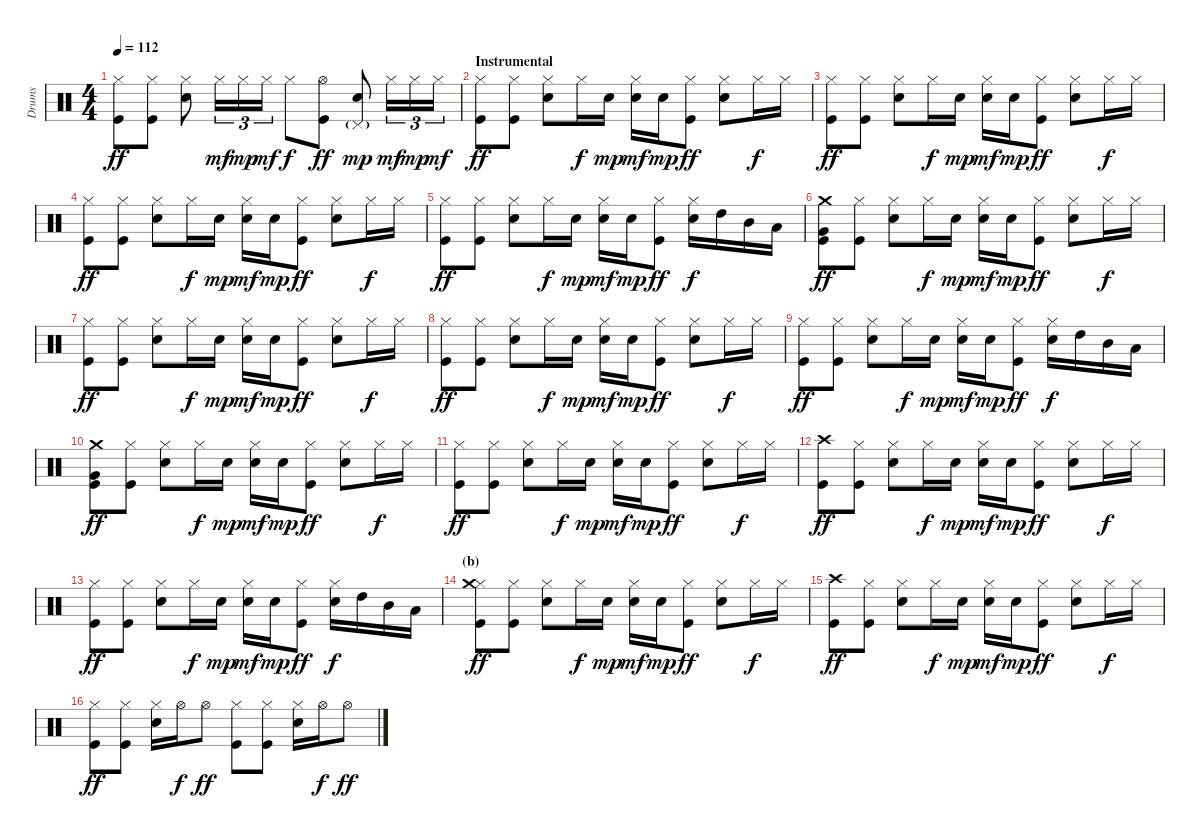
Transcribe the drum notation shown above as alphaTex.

\track ("Drums" "Drums") {instrument percussion}
\staff {score}
\articulation defaults
\ts (4 4)
\tempo 112
\clef neutral
\ks c
("Hi-Hat (closed)" "Kick (hit)").8{dy ff} ("Hi-Hat (closed)" "Kick (hit)").8 ("Hi-Hat (closed)" "Electric Snare (hit)").8 "Hi-Hat (closed)".16{tu (3 2) dy mf} "Hi-Hat (closed)".16{tu (3 2) dy mp} "Hi-Hat (closed)".16{tu (3 2) dy mf} "Hi-Hat (closed)".8{dy f} ("Hi-Hat (open)" "Kick (hit)").8{dy ff} ("Pedal Hi-Hat (hit)"{g} "Electric Snare (hit)").8{dy mp} "Hi-Hat (closed)".16{tu (3 2) dy mf} "Hi-Hat (closed)".16{tu (3 2) dy mp} "Hi-Hat (closed)".16{tu (3 2) dy mf} |
\section ("" "Instrumental")
("Hi-Hat (closed)" "Kick (hit)").8{dy ff} ("Hi-Hat (closed)" "Kick (hit)").8 ("Hi-Hat (closed)" "Electric Snare (hit)").8 "Hi-Hat (closed)".16{dy f} "Electric Snare (hit)".16{dy mp} ("Hi-Hat (closed)" "Electric Snare (hit)").16{dy mf} "Electric Snare (hit)".16{dy mp} ("Hi-Hat (closed)" "Kick (hit)").8{dy ff} ("Hi-Hat (closed)" "Electric Snare (hit)").8 "Hi-Hat (closed)".16{dy f} "Hi-Hat (closed)".16 |
("Hi-Hat (closed)" "Kick (hit)").8{dy ff} ("Hi-Hat (closed)" "Kick (hit)").8 ("Hi-Hat (closed)" "Electric Snare (hit)").8 "Hi-Hat (closed)".16{dy f} "Electric Snare (hit)".16{dy mp} ("Hi-Hat (closed)" "Electric Snare (hit)").16{dy mf} "Electric Snare (hit)".16{dy mp} ("Hi-Hat (closed)" "Kick (hit)").8{dy ff} ("Hi-Hat (closed)" "Electric Snare (hit)").8 "Hi-Hat (closed)".16{dy f} "Hi-Hat (closed)".16 |
("Hi-Hat (closed)" "Kick (hit)").8{dy ff} ("Hi-Hat (closed)" "Kick (hit)").8 ("Hi-Hat (closed)" "Electric Snare (hit)").8 "Hi-Hat (closed)".16{dy f} "Electric Snare (hit)".16{dy mp} ("Hi-Hat (closed)" "Electric Snare (hit)").16{dy mf} "Electric Snare (hit)".16{dy mp} ("Hi-Hat (closed)" "Kick (hit)").8{dy ff} ("Hi-Hat (closed)" "Electric Snare (hit)").8 "Hi-Hat (closed)".16{dy f} "Hi-Hat (closed)".16 |
("Hi-Hat (closed)" "Kick (hit)").8{dy ff} ("Hi-Hat (closed)" "Kick (hit)").8 ("Hi-Hat (closed)" "Electric Snare (hit)").8 "Hi-Hat (closed)".16{dy f} "Electric Snare (hit)".16{dy mp} ("Hi-Hat (closed)" "Electric Snare (hit)").16{dy mf} "Electric Snare (hit)".16{dy mp} ("Hi-Hat (closed)" "Kick (hit)").8{dy ff} ("Hi-Hat (closed)" "Electric Snare (hit)").16{dy f} "High Tom (hit)".16 "Mid Tom (hit)".16 "Low Tom (hit)".16 |
("Crash medium (hit)" "Very Low Tom (hit)" "Kick (hit)").8{dy ff} ("Hi-Hat (closed)" "Kick (hit)").8 ("Hi-Hat (closed)" "Electric Snare (hit)").8 "Hi-Hat (closed)".16{dy f} "Electric Snare (hit)".16{dy mp} ("Hi-Hat (closed)" "Electric Snare (hit)").16{dy mf} "Electric Snare (hit)".16{dy mp} ("Hi-Hat (closed)" "Kick (hit)").8{dy ff} ("Hi-Hat (closed)" "Electric Snare (hit)").8 "Hi-Hat (closed)".16{dy f} "Hi-Hat (closed)".16 |
("Hi-Hat (closed)" "Kick (hit)").8{dy ff} ("Hi-Hat (closed)" "Kick (hit)").8 ("Hi-Hat (closed)" "Electric Snare (hit)").8 "Hi-Hat (closed)".16{dy f} "Electric Snare (hit)".16{dy mp} ("Hi-Hat (closed)" "Electric Snare (hit)").16{dy mf} "Electric Snare (hit)".16{dy mp} ("Hi-Hat (closed)" "Kick (hit)").8{dy ff} ("Hi-Hat (closed)" "Electric Snare (hit)").8 "Hi-Hat (closed)".16{dy f} "Hi-Hat (closed)".16 |
("Hi-Hat (closed)" "Kick (hit)").8{dy ff} ("Hi-Hat (closed)" "Kick (hit)").8 ("Hi-Hat (closed)" "Electric Snare (hit)").8 "Hi-Hat (closed)".16{dy f} "Electric Snare (hit)".16{dy mp} ("Hi-Hat (closed)" "Electric Snare (hit)").16{dy mf} "Electric Snare (hit)".16{dy mp} ("Hi-Hat (closed)" "Kick (hit)").8{dy ff} ("Hi-Hat (closed)" "Electric Snare (hit)").8 "Hi-Hat (closed)".16{dy f} "Hi-Hat (closed)".16 |
("Hi-Hat (closed)" "Kick (hit)").8{dy ff} ("Hi-Hat (closed)" "Kick (hit)").8 ("Hi-Hat (closed)" "Electric Snare (hit)").8 "Hi-Hat (closed)".16{dy f} "Electric Snare (hit)".16{dy mp} ("Hi-Hat (closed)" "Electric Snare (hit)").16{dy mf} "Electric Snare (hit)".16{dy mp} ("Hi-Hat (closed)" "Kick (hit)").8{dy ff} ("Hi-Hat (closed)" "Electric Snare (hit)").16{dy f} "High Tom (hit)".16 "Mid Tom (hit)".16 "Low Tom (hit)".16 |
("Crash medium (hit)" "Very Low Tom (hit)" "Kick (hit)").8{dy ff} ("Hi-Hat (closed)" "Kick (hit)").8 ("Hi-Hat (closed)" "Electric Snare (hit)").8 "Hi-Hat (closed)".16{dy f} "Electric Snare (hit)".16{dy mp} ("Hi-Hat (closed)" "Electric Snare (hit)").16{dy mf} "Electric Snare (hit)".16{dy mp} ("Hi-Hat (closed)" "Kick (hit)").8{dy ff} ("Hi-Hat (closed)" "Electric Snare (hit)").8 "Hi-Hat (closed)".16{dy f} "Hi-Hat (closed)".16 |
("Hi-Hat (closed)" "Kick (hit)").8{dy ff} ("Hi-Hat (closed)" "Kick (hit)").8 ("Hi-Hat (closed)" "Electric Snare (hit)").8 "Hi-Hat (closed)".16{dy f} "Electric Snare (hit)".16{dy mp} ("Hi-Hat (closed)" "Electric Snare (hit)").16{dy mf} "Electric Snare (hit)".16{dy mp} ("Hi-Hat (closed)" "Kick (hit)").8{dy ff} ("Hi-Hat (closed)" "Electric Snare (hit)").8 "Hi-Hat (closed)".16{dy f} "Hi-Hat (closed)".16 |
("Crash high (hit)" "Kick (hit)").8{dy ff} ("Hi-Hat (closed)" "Kick (hit)").8 ("Hi-Hat (closed)" "Electric Snare (hit)").8 "Hi-Hat (closed)".16{dy f} "Electric Snare (hit)".16{dy mp} ("Hi-Hat (closed)" "Electric Snare (hit)").16{dy mf} "Electric Snare (hit)".16{dy mp} ("Hi-Hat (closed)" "Kick (hit)").8{dy ff} ("Hi-Hat (closed)" "Electric Snare (hit)").8 "Hi-Hat (closed)".16{dy f} "Hi-Hat (closed)".16 |
("Hi-Hat (closed)" "Kick (hit)").8{dy ff} ("Hi-Hat (closed)" "Kick (hit)").8 ("Hi-Hat (closed)" "Electric Snare (hit)").8 "Hi-Hat (closed)".16{dy f} "Electric Snare (hit)".16{dy mp} ("Hi-Hat (closed)" "Electric Snare (hit)").16{dy mf} "Electric Snare (hit)".16{dy mp} ("Hi-Hat (closed)" "Kick (hit)").8{dy ff} ("Hi-Hat (closed)" "Electric Snare (hit)").16{dy f} "High Tom (hit)".16 "Mid Tom (hit)".16 "Low Tom (hit)".16 |
\section ("" "(b)")
("Hi-Hat (closed)" "Crash medium (hit)" "Kick (hit)").8{dy ff} ("Hi-Hat (closed)" "Kick (hit)").8 ("Hi-Hat (closed)" "Electric Snare (hit)").8 "Hi-Hat (closed)".16{dy f} "Electric Snare (hit)".16{dy mp} ("Hi-Hat (closed)" "Electric Snare (hit)").16{dy mf} "Electric Snare (hit)".16{dy mp} ("Hi-Hat (closed)" "Kick (hit)").8{dy ff} ("Hi-Hat (closed)" "Electric Snare (hit)").8 "Hi-Hat (closed)".16{dy f} "Hi-Hat (closed)".16 |
("Crash high (hit)" "Kick (hit)").8{dy ff} ("Hi-Hat (closed)" "Kick (hit)").8 ("Hi-Hat (closed)" "Electric Snare (hit)").8 "Hi-Hat (closed)".16{dy f} "Electric Snare (hit)".16{dy mp} ("Hi-Hat (closed)" "Electric Snare (hit)").16{dy mf} "Electric Snare (hit)".16{dy mp} ("Hi-Hat (closed)" "Kick (hit)").8{dy ff} ("Hi-Hat (closed)" "Electric Snare (hit)").8 "Hi-Hat (closed)".16{dy f} "Hi-Hat (closed)".16 |
("Hi-Hat (closed)" "Kick (hit)").8{dy ff} ("Hi-Hat (closed)" "Kick (hit)").8 ("Hi-Hat (closed)" "Electric Snare (hit)").16 "Hi-Hat (open)".16{dy f} "Hi-Hat (open)".8{dy ff} ("Hi-Hat (closed)" "Kick (hit)").8 ("Hi-Hat (closed)" "Kick (hit)").8 ("Hi-Hat (closed)" "Electric Snare (hit)").16 "Hi-Hat (open)".16{dy f} "Hi-Hat (open)".8{dy ff}
